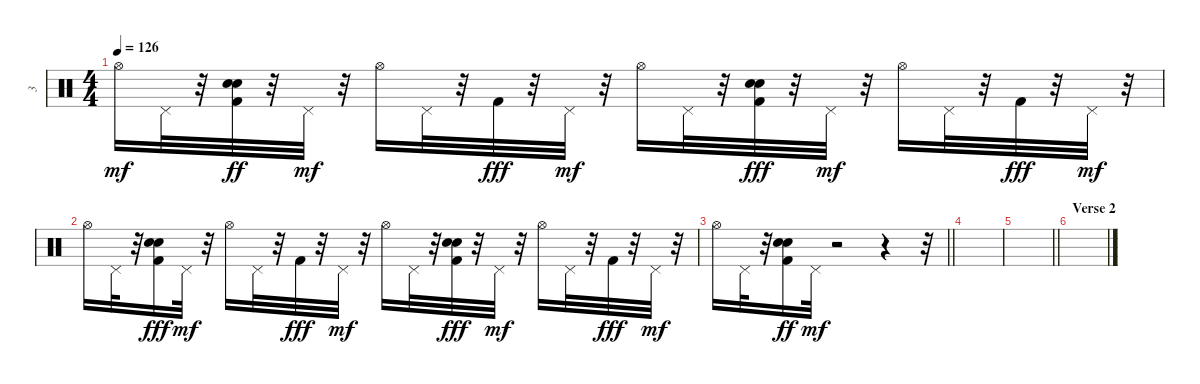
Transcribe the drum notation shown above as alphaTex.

\track ("3" "3") {instrument percussion}
\staff {score}
\articulation defaults
\ts (4 4)
\tempo 126
\clef neutral
\ks c "Hi-Hat (open)".16{dy mf} "Pedal Hi-Hat (hit)".32
r.32 ("Kick (hit) 2" "Snare (hit) 2" "Hand Clap (hit)").32{dy ff} r.32 "Pedal Hi-Hat (hit)".32{dy mf} r.32 "Hi-Hat (open)".16 "Pedal Hi-Hat (hit)".32 r.32 "Kick (hit) 2".32{dy fff} r.32 "Pedal Hi-Hat (hit)".32{dy mf} r.32 "Hi-Hat (open)".16 "Pedal Hi-Hat (hit)".32 r.32 ("Kick (hit) 2" "Snare (hit) 2" "Hand Clap (hit)").32{dy fff} r.32 "Pedal Hi-Hat (hit)".32{dy mf} r.32 "Hi-Hat (open)".16 "Pedal Hi-Hat (hit)".32 r.32 "Kick (hit) 2".32{dy fff} r.32 "Pedal Hi-Hat (hit)".32{dy mf} r.32 |
"Hi-Hat (open)".16 "Pedal Hi-Hat (hit)".32 r.32 ("Kick (hit) 2" "Snare (hit) 2" "Hand Clap (hit)").16{dy fff} "Pedal Hi-Hat (hit)".32{dy mf} r.32 "Hi-Hat (open)".16 "Pedal Hi-Hat (hit)".32 r.32 "Kick (hit) 2".32{dy fff} r.32 "Pedal Hi-Hat (hit)".32{dy mf} r.32 "Hi-Hat (open)".16 "Pedal Hi-Hat (hit)".32 r.32 ("Kick (hit) 2" "Snare (hit) 2" "Hand Clap (hit)").32{dy fff} r.32 "Pedal Hi-Hat (hit)".32{dy mf} r.32 "Hi-Hat (open)".16 "Pedal Hi-Hat (hit)".32 r.32 "Kick (hit) 2".32{dy fff} r.32 "Pedal Hi-Hat (hit)".32{dy mf} r.32 |
\barLineRight lightlight "Hi-Hat (open)".16 "Pedal Hi-Hat (hit)".32
r.32 ("Kick (hit) 2" "Snare (hit) 2" "Hand Clap (hit)").16{dy ff} "Pedal Hi-Hat (hit)".32{dy mf} r.2 r.4 r.32 |
\section ("" "")
|
\barLineRight lightlight
|
\section ("" "Verse 2")
